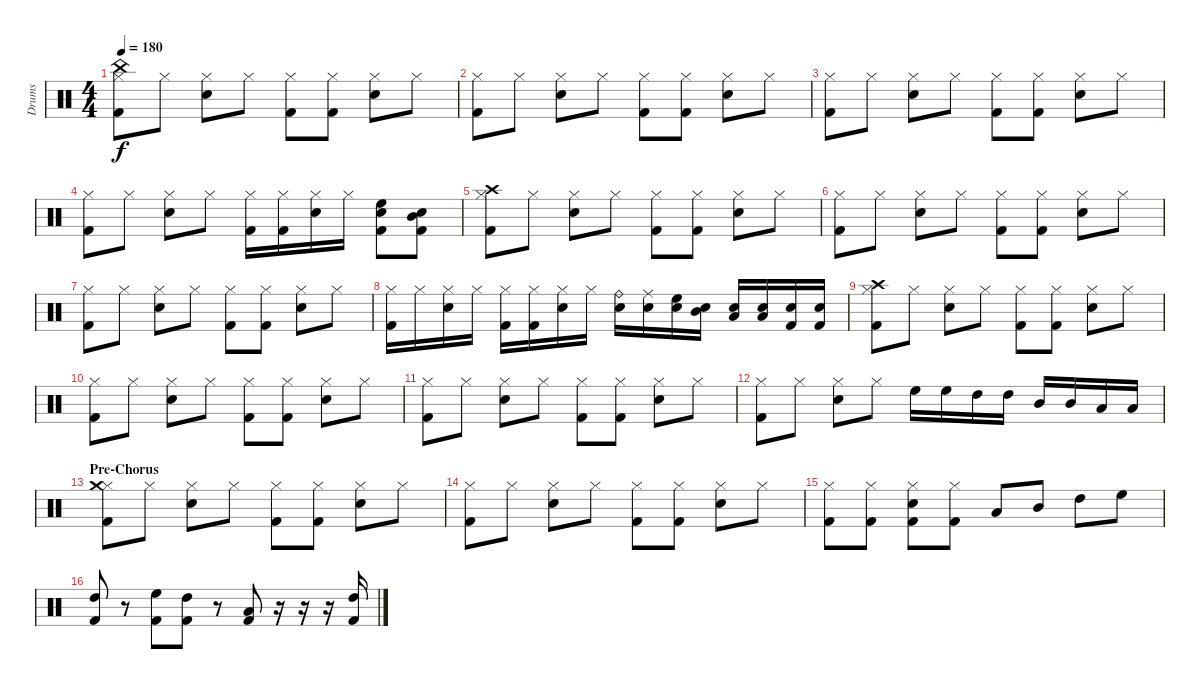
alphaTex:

\track ("Drums" "Drums") {instrument percussion}
\staff {score}
\articulation defaults
\ts (4 4)
\tempo 180
\clef neutral
\ks c
("Hi-Hat (closed)" "China (hit)" "Kick (hit) 2").8{dy f} "Hi-Hat (closed)".8 ("Hi-Hat (closed)" "Snare (hit) 2").8 "Hi-Hat (closed)".8 ("Hi-Hat (closed)" "Kick (hit) 2").8 ("Hi-Hat (closed)" "Kick (hit) 2").8 ("Hi-Hat (closed)" "Snare (hit) 2").8 "Hi-Hat (closed)".8 |
("Hi-Hat (closed)" "Kick (hit) 2").8 "Hi-Hat (closed)".8 ("Hi-Hat (closed)" "Snare (hit) 2").8 "Hi-Hat (closed)".8 ("Hi-Hat (closed)" "Kick (hit) 2").8 ("Hi-Hat (closed)" "Kick (hit) 2").8 ("Hi-Hat (closed)" "Snare (hit) 2").8 "Hi-Hat (closed)".8 |
("Hi-Hat (closed)" "Kick (hit) 2").8 "Hi-Hat (closed)".8 ("Hi-Hat (closed)" "Snare (hit) 2").8 "Hi-Hat (closed)".8 ("Hi-Hat (closed)" "Kick (hit) 2").8 ("Hi-Hat (closed)" "Kick (hit) 2").8 ("Hi-Hat (closed)" "Snare (hit) 2").8 "Hi-Hat (closed)".8 |
("Hi-Hat (closed)" "Kick (hit) 2").8 "Hi-Hat (closed)".8 ("Hi-Hat (closed)" "Snare (hit) 2").8 "Hi-Hat (closed)".8 ("Hi-Hat (closed)" "Kick (hit) 2").16 ("Hi-Hat (closed)" "Kick (hit) 2").16 ("Hi-Hat (closed)" "Snare (hit) 2").16 "Hi-Hat (closed)".16 ("High Floor Tom (hit)" "Snare (hit) 2" "Kick (hit) 2").8 ("Mid Tom (hit)" "Snare (hit) 2" "Kick (hit) 2").8 |
("Hi-Hat (closed)" "Crash high (hit)" "Kick (hit) 2").8 "Hi-Hat (closed)".8 ("Hi-Hat (closed)" "Snare (hit) 2").8 "Hi-Hat (closed)".8 ("Hi-Hat (closed)" "Kick (hit) 2").8 ("Hi-Hat (closed)" "Kick (hit) 2").8 ("Hi-Hat (closed)" "Snare (hit) 2").8 "Hi-Hat (closed)".8 |
("Hi-Hat (closed)" "Kick (hit) 2").8 "Hi-Hat (closed)".8 ("Hi-Hat (closed)" "Snare (hit) 2").8 "Hi-Hat (closed)".8 ("Hi-Hat (closed)" "Kick (hit) 2").8 ("Hi-Hat (closed)" "Kick (hit) 2").8 ("Hi-Hat (closed)" "Snare (hit) 2").8 "Hi-Hat (closed)".8 |
("Hi-Hat (closed)" "Kick (hit) 2").8 "Hi-Hat (closed)".8 ("Hi-Hat (closed)" "Snare (hit) 2").8 "Hi-Hat (closed)".8 ("Hi-Hat (closed)" "Kick (hit) 2").8 ("Hi-Hat (closed)" "Kick (hit) 2").8 ("Hi-Hat (closed)" "Snare (hit) 2").8 "Hi-Hat (closed)".8 |
("Hi-Hat (closed)" "Kick (hit) 2").16 "Hi-Hat (closed)".16 ("Hi-Hat (closed)" "Snare (hit) 2").16 "Hi-Hat (closed)".16 ("Hi-Hat (closed)" "Kick (hit) 2").16 ("Hi-Hat (closed)" "Kick (hit) 2").16 ("Hi-Hat (closed)" "Snare (hit) 2").16 "Hi-Hat (closed)".16 ("Ride (bell)" "Snare (hit) 2").16 ("Ride (middle)" "Snare (hit) 2").16 ("High Floor Tom (hit)" "Snare (hit) 2").16 ("Mid Tom (hit)" "Snare (hit) 2").16 ("Low Tom (hit)" "Snare (hit) 2").16 ("Low Floor Tom (hit)" "Snare (hit) 2").16 ("Kick (hit) 2" "Snare (hit) 2").16 ("Kick (hit) 2" "Snare (hit) 2").16 |
("Hi-Hat (closed)" "Crash high (hit)" "Kick (hit) 2").8 "Hi-Hat (closed)".8 ("Hi-Hat (closed)" "Snare (hit) 2").8 "Hi-Hat (closed)".8 ("Hi-Hat (closed)" "Kick (hit) 2").8 ("Hi-Hat (closed)" "Kick (hit) 2").8 ("Hi-Hat (closed)" "Snare (hit) 2").8 "Hi-Hat (closed)".8 |
("Hi-Hat (closed)" "Kick (hit) 2").8 "Hi-Hat (closed)".8 ("Hi-Hat (closed)" "Snare (hit) 2").8 "Hi-Hat (closed)".8 ("Hi-Hat (closed)" "Kick (hit) 2").8 ("Hi-Hat (closed)" "Kick (hit) 2").8 ("Hi-Hat (closed)" "Snare (hit) 2").8 "Hi-Hat (closed)".8 |
("Hi-Hat (closed)" "Kick (hit) 2").8 "Hi-Hat (closed)".8 ("Hi-Hat (closed)" "Snare (hit) 2").8 "Hi-Hat (closed)".8 ("Hi-Hat (closed)" "Kick (hit) 2").8 ("Hi-Hat (closed)" "Kick (hit) 2").8 ("Hi-Hat (closed)" "Snare (hit) 2").8 "Hi-Hat (closed)".8 |
("Hi-Hat (closed)" "Kick (hit) 2").8 "Hi-Hat (closed)".8 ("Hi-Hat (closed)" "Snare (hit) 2").8 "Hi-Hat (closed)".8 "High Floor Tom (hit)".16 "High Floor Tom (hit)".16 "High Tom (hit)".16 "High Tom (hit)".16 "Mid Tom (hit)".16 "Mid Tom (hit)".16 "Low Tom (hit)".16 "Low Tom (hit)".16 |
\section ("" "Pre-Chorus")
("Hi-Hat (closed)" "Crash medium (hit)" "Kick (hit) 2").8 "Hi-Hat (closed)".8 ("Hi-Hat (closed)" "Snare (hit) 2").8 "Hi-Hat (closed)".8 ("Hi-Hat (closed)" "Kick (hit) 2").8 ("Hi-Hat (closed)" "Kick (hit) 2").8 ("Hi-Hat (closed)" "Snare (hit) 2").8 "Hi-Hat (closed)".8 |
("Hi-Hat (closed)" "Kick (hit) 2").8 "Hi-Hat (closed)".8 ("Hi-Hat (closed)" "Snare (hit) 2").8 "Hi-Hat (closed)".8 ("Hi-Hat (closed)" "Kick (hit) 2").8 ("Hi-Hat (closed)" "Kick (hit) 2").8 ("Hi-Hat (closed)" "Snare (hit) 2").8 "Hi-Hat (closed)".8 |
("Hi-Hat (closed)" "Kick (hit) 2").8 ("Hi-Hat (closed)" "Kick (hit) 2").8 ("Hi-Hat (closed)" "Snare (hit) 2" "Kick (hit) 2").8 ("Hi-Hat (closed)" "Kick (hit) 2").8 "Low Tom (hit)".8 "Mid Tom (hit)".8 "High Tom (hit)".8 "High Floor Tom (hit)".8 |
("High Tom (hit)" "Kick (hit) 2").8 r.8 ("High Floor Tom (hit)" "Kick (hit) 2").8 ("High Tom (hit)" "Kick (hit) 2").8 r.8 ("Low Floor Tom (hit)" "Kick (hit) 2").8 r.16 r.16 r.16 ("High Tom (hit)" "Kick (hit) 2").16
